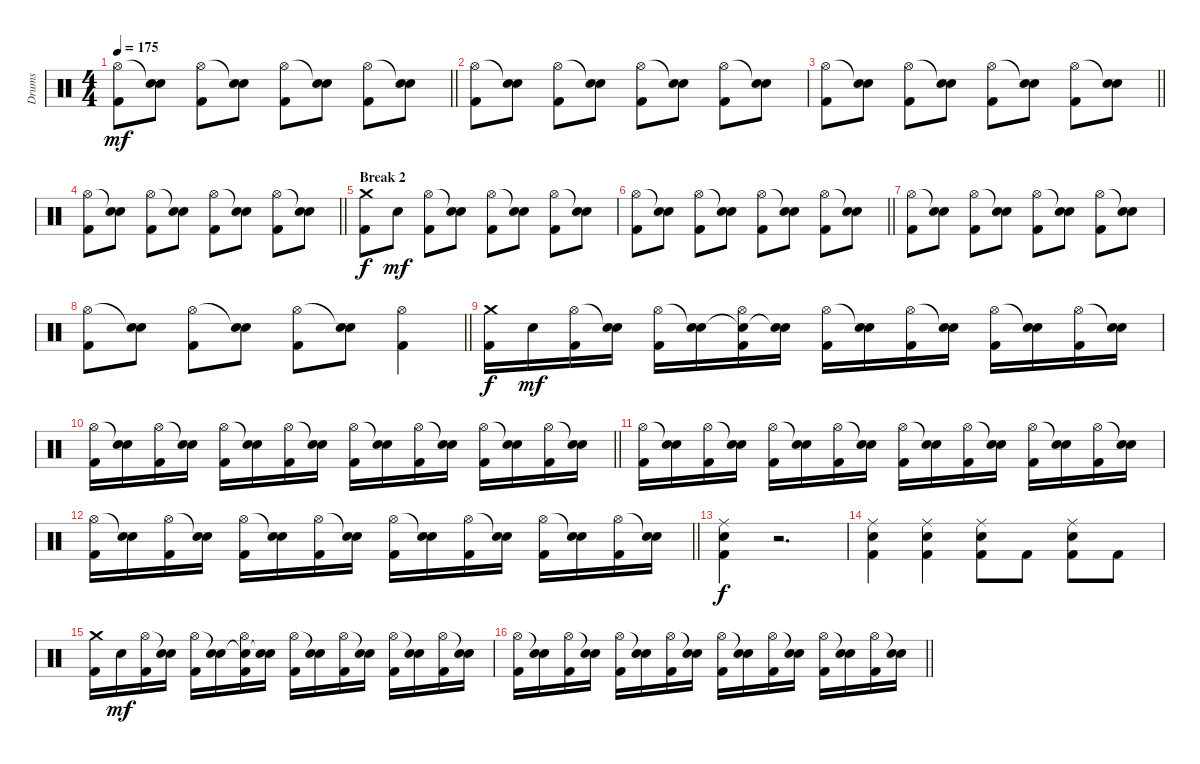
\track ("Drums" "Drums") {instrument percussion}
\staff {score}
\articulation defaults
\ts (4 4)
\tempo 175
\clef neutral
\barLineRight lightlight
\ks c
("Hi-Hat (open)" "Kick (hit) 2").8{dy mf} ("Snare (hit)"{t} "Electric Snare (hit)").8 ("Hi-Hat (open)" "Kick (hit) 2").8 ("Snare (hit)"{t} "Electric Snare (hit)").8 ("Hi-Hat (open)" "Kick (hit) 2").8 ("Snare (hit)"{t} "Electric Snare (hit)").8 ("Hi-Hat (open)" "Kick (hit) 2").8 ("Snare (hit)"{t} "Electric Snare (hit)").8 |
("Hi-Hat (open)" "Kick (hit) 2").8 ("Snare (hit)"{t} "Electric Snare (hit)").8 ("Hi-Hat (open)" "Kick (hit) 2").8 ("Snare (hit)"{t} "Electric Snare (hit)").8 ("Hi-Hat (open)" "Kick (hit) 2").8 ("Snare (hit)"{t} "Electric Snare (hit)").8 ("Hi-Hat (open)" "Kick (hit) 2").8 ("Snare (hit)"{t} "Electric Snare (hit)").8 |
\barLineRight lightlight
("Hi-Hat (open)" "Kick (hit) 2").8 ("Snare (hit)"{t} "Electric Snare (hit)").8 ("Hi-Hat (open)" "Kick (hit) 2").8 ("Snare (hit)"{t} "Electric Snare (hit)").8 ("Hi-Hat (open)" "Kick (hit) 2").8 ("Snare (hit)"{t} "Electric Snare (hit)").8 ("Hi-Hat (open)" "Kick (hit) 2").8 ("Snare (hit)"{t} "Electric Snare (hit)").8 |
\barLineRight lightlight
("Hi-Hat (open)" "Kick (hit) 2").8 ("Snare (hit)"{t} "Electric Snare (hit)").8 ("Hi-Hat (open)" "Kick (hit) 2").8 ("Snare (hit)"{t} "Electric Snare (hit)").8 ("Hi-Hat (open)" "Kick (hit) 2").8 ("Snare (hit)"{t} "Electric Snare (hit)").8 ("Hi-Hat (open)" "Kick (hit) 2").8 ("Snare (hit)"{t} "Electric Snare (hit)").8 |
\section ("" "Break 2")
("Crash medium (hit)" "Kick (hit) 2").8{dy f} "Electric Snare (hit)".8{dy mf} ("Hi-Hat (open)" "Kick (hit) 2").8 ("Snare (hit)"{t} "Electric Snare (hit)").8 ("Hi-Hat (open)" "Kick (hit) 2").8 ("Snare (hit)"{t} "Electric Snare (hit)").8 ("Hi-Hat (open)" "Kick (hit) 2").8 ("Snare (hit)"{t} "Electric Snare (hit)").8 |
\barLineRight lightlight
("Hi-Hat (open)" "Kick (hit) 2").8 ("Snare (hit)"{t} "Electric Snare (hit)").8 ("Hi-Hat (open)" "Kick (hit) 2").8 ("Snare (hit)"{t} "Electric Snare (hit)").8 ("Hi-Hat (open)" "Kick (hit) 2").8 ("Snare (hit)"{t} "Electric Snare (hit)").8 ("Hi-Hat (open)" "Kick (hit) 2").8 ("Snare (hit)"{t} "Electric Snare (hit)").8 |
("Hi-Hat (open)" "Kick (hit) 2").8 ("Snare (hit)"{t} "Electric Snare (hit)").8 ("Hi-Hat (open)" "Kick (hit) 2").8 ("Snare (hit)"{t} "Electric Snare (hit)").8 ("Hi-Hat (open)" "Kick (hit) 2").8 ("Snare (hit)"{t} "Electric Snare (hit)").8 ("Hi-Hat (open)" "Kick (hit) 2").8 ("Snare (hit)"{t} "Electric Snare (hit)").8 |
\barLineRight lightlight
("Hi-Hat (open)" "Kick (hit) 2").8 ("Snare (hit)"{t} "Electric Snare (hit)").8 ("Hi-Hat (open)" "Kick (hit) 2").8 ("Snare (hit)"{t} "Electric Snare (hit)").8 ("Hi-Hat (open)" "Kick (hit) 2").8 ("Snare (hit)"{t} "Electric Snare (hit)").8 ("Hi-Hat (open)" "Kick (hit) 2").4 |
("Crash medium (hit)" "Kick (hit) 2").16{dy f} "Electric Snare (hit)".16{dy mf} ("Hi-Hat (open)" "Kick (hit) 2").16 ("Snare (hit)"{t} "Electric Snare (hit)").16 ("Hi-Hat (open)" "Kick (hit) 2").16 ("Snare (hit)"{t} "Electric Snare (hit)").16 ("Snare (hit)"{t} "Hi-Hat (open)" "Kick (hit) 2").16 ("Snare (hit)"{t} "Electric Snare (hit)").16 ("Hi-Hat (open)" "Kick (hit) 2").16 ("Snare (hit)"{t} "Electric Snare (hit)").16 ("Hi-Hat (open)" "Kick (hit) 2").16 ("Snare (hit)"{t} "Electric Snare (hit)").16 ("Hi-Hat (open)" "Kick (hit) 2").16 ("Snare (hit)"{t} "Electric Snare (hit)").16 ("Hi-Hat (open)" "Kick (hit) 2").16 ("Snare (hit)"{t} "Electric Snare (hit)").16 |
\barLineRight lightlight
("Hi-Hat (open)" "Kick (hit) 2").16 ("Snare (hit)"{t} "Electric Snare (hit)").16 ("Hi-Hat (open)" "Kick (hit) 2").16 ("Snare (hit)"{t} "Electric Snare (hit)").16 ("Hi-Hat (open)" "Kick (hit) 2").16 ("Snare (hit)"{t} "Electric Snare (hit)").16 ("Hi-Hat (open)" "Kick (hit) 2").16 ("Snare (hit)"{t} "Electric Snare (hit)").16 ("Hi-Hat (open)" "Kick (hit) 2").16 ("Snare (hit)"{t} "Electric Snare (hit)").16 ("Hi-Hat (open)" "Kick (hit) 2").16 ("Snare (hit)"{t} "Electric Snare (hit)").16 ("Hi-Hat (open)" "Kick (hit) 2").16 ("Snare (hit)"{t} "Electric Snare (hit)").16 ("Hi-Hat (open)" "Kick (hit) 2").16 ("Snare (hit)"{t} "Electric Snare (hit)").16 |
("Hi-Hat (open)" "Kick (hit) 2").16 ("Snare (hit)"{t} "Electric Snare (hit)").16 ("Hi-Hat (open)" "Kick (hit) 2").16 ("Snare (hit)"{t} "Electric Snare (hit)").16 ("Hi-Hat (open)" "Kick (hit) 2").16 ("Snare (hit)"{t} "Electric Snare (hit)").16 ("Hi-Hat (open)" "Kick (hit) 2").16 ("Snare (hit)"{t} "Electric Snare (hit)").16 ("Hi-Hat (open)" "Kick (hit) 2").16 ("Snare (hit)"{t} "Electric Snare (hit)").16 ("Hi-Hat (open)" "Kick (hit) 2").16 ("Snare (hit)"{t} "Electric Snare (hit)").16 ("Hi-Hat (open)" "Kick (hit) 2").16 ("Snare (hit)"{t} "Electric Snare (hit)").16 ("Hi-Hat (open)" "Kick (hit) 2").16 ("Snare (hit)"{t} "Electric Snare (hit)").16 |
\barLineRight lightlight
("Hi-Hat (open)" "Kick (hit) 2").16 ("Snare (hit)"{t} "Electric Snare (hit)").16 ("Hi-Hat (open)" "Kick (hit) 2").16 ("Snare (hit)"{t} "Electric Snare (hit)").16 ("Hi-Hat (open)" "Kick (hit) 2").16 ("Snare (hit)"{t} "Electric Snare (hit)").16 ("Hi-Hat (open)" "Kick (hit) 2").16 ("Snare (hit)"{t} "Electric Snare (hit)").16 ("Hi-Hat (open)" "Kick (hit) 2").16 ("Snare (hit)"{t} "Electric Snare (hit)").16 ("Hi-Hat (open)" "Kick (hit) 2").16 ("Snare (hit)"{t} "Electric Snare (hit)").16 ("Hi-Hat (open)" "Kick (hit) 2").16 ("Snare (hit)"{t} "Electric Snare (hit)").16 ("Hi-Hat (open)" "Kick (hit) 2").16 ("Snare (hit)"{t} "Electric Snare (hit)").16 |
("Ride (middle)" "Snare (hit) 2" "Kick (hit) 2").4{dy f} r.2{d} |
("Ride (middle)" "Snare (hit) 2" "Kick (hit) 2").4 ("Ride (middle)" "Snare (hit) 2" "Kick (hit) 2").4 ("Ride (middle)" "Snare (hit) 2" "Kick (hit) 2").8 "Kick (hit) 2".8 ("Ride (middle)" "Snare (hit) 2" "Kick (hit) 2").8 "Kick (hit) 2".8 |
("Crash medium (hit)" "Kick (hit) 2").16 "Electric Snare (hit)".16{dy mf} ("Hi-Hat (open)" "Kick (hit) 2").16 ("Snare (hit)"{t} "Electric Snare (hit)").16 ("Hi-Hat (open)" "Kick (hit) 2").16 ("Snare (hit)"{t} "Electric Snare (hit)").16 ("Snare (hit)"{t} "Hi-Hat (open)" "Kick (hit) 2").16 ("Snare (hit)"{t} "Electric Snare (hit)").16 ("Hi-Hat (open)" "Kick (hit) 2").16 ("Snare (hit)"{t} "Electric Snare (hit)").16 ("Hi-Hat (open)" "Kick (hit) 2").16 ("Snare (hit)"{t} "Electric Snare (hit)").16 ("Hi-Hat (open)" "Kick (hit) 2").16 ("Snare (hit)"{t} "Electric Snare (hit)").16 ("Hi-Hat (open)" "Kick (hit) 2").16 ("Snare (hit)"{t} "Electric Snare (hit)").16 |
\barLineRight lightlight
("Hi-Hat (open)" "Kick (hit) 2").16 ("Snare (hit)"{t} "Electric Snare (hit)").16 ("Hi-Hat (open)" "Kick (hit) 2").16 ("Snare (hit)"{t} "Electric Snare (hit)").16 ("Hi-Hat (open)" "Kick (hit) 2").16 ("Snare (hit)"{t} "Electric Snare (hit)").16 ("Hi-Hat (open)" "Kick (hit) 2").16 ("Snare (hit)"{t} "Electric Snare (hit)").16 ("Hi-Hat (open)" "Kick (hit) 2").16 ("Snare (hit)"{t} "Electric Snare (hit)").16 ("Hi-Hat (open)" "Kick (hit) 2").16 ("Snare (hit)"{t} "Electric Snare (hit)").16 ("Hi-Hat (open)" "Kick (hit) 2").16 ("Snare (hit)"{t} "Electric Snare (hit)").16 ("Hi-Hat (open)" "Kick (hit) 2").16 ("Snare (hit)"{t} "Electric Snare (hit)").16
